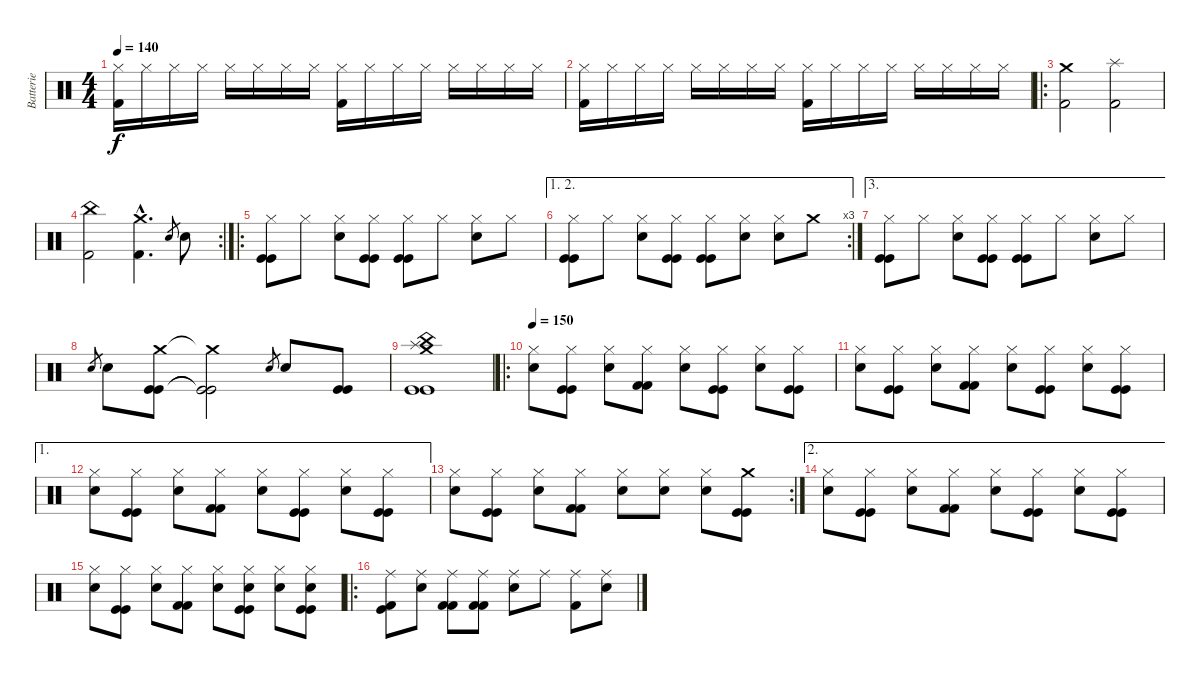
\track ("Batterie" "Batterie") {instrument percussion}
\staff {score}
\articulation defaults
\ts (4 4)
\tempo 140
\clef neutral
\ks c
("Hi-Hat (closed)" "Kick (hit) 2").16{dy f} "Hi-Hat (closed)".16 "Hi-Hat (closed)".16 "Hi-Hat (closed)".16 "Hi-Hat (closed)".16 "Hi-Hat (closed)".16 "Hi-Hat (closed)".16 "Hi-Hat (closed)".16 ("Hi-Hat (closed)" "Kick (hit) 2").16 "Hi-Hat (closed)".16 "Hi-Hat (closed)".16 "Hi-Hat (closed)".16 "Hi-Hat (closed)".16 "Hi-Hat (closed)".16 "Hi-Hat (closed)".16 "Hi-Hat (closed)".16 |
("Hi-Hat (closed)" "Kick (hit) 2").16 "Hi-Hat (closed)".16 "Hi-Hat (closed)".16 "Hi-Hat (closed)".16 "Hi-Hat (closed)".16 "Hi-Hat (closed)".16 "Hi-Hat (closed)".16 "Hi-Hat (closed)".16 ("Hi-Hat (closed)" "Kick (hit) 2").16 "Hi-Hat (closed)".16 "Hi-Hat (closed)".16 "Hi-Hat (closed)".16 "Hi-Hat (closed)".16 "Hi-Hat (closed)".16 "Hi-Hat (closed)".16 "Hi-Hat (closed)".16 |
\ro
("Crash medium (hit)" "Kick (hit) 2").2 ("Splash (hit)" "Kick (hit) 2").2 |
\rc 2
("China (hit)" "Kick (hit) 2").2 ("Crash medium (hit)"{hac} "Kick (hit) 2"{hac}).4{d} "Snare (hit) 2".8{gr} "Snare (hit) 2".8 |
\ro
("Hi-Hat (closed)" "Kick (hit)" "Kick (hit)").8 "Hi-Hat (closed)".8 ("Hi-Hat (closed)" "Snare (hit) 2").8 ("Hi-Hat (closed)" "Kick (hit)" "Kick (hit)").8 ("Hi-Hat (closed)" "Kick (hit)" "Kick (hit)").8 "Hi-Hat (closed)".8 ("Hi-Hat (closed)" "Snare (hit) 2").8 "Hi-Hat (closed)".8 |
\ae (1 2)
\rc 3
("Hi-Hat (closed)" "Kick (hit)" "Kick (hit)").8 "Hi-Hat (closed)".8 ("Hi-Hat (closed)" "Snare (hit) 2").8 ("Hi-Hat (closed)" "Kick (hit)" "Kick (hit)").8 ("Hi-Hat (closed)" "Kick (hit)" "Kick (hit)").8 ("Hi-Hat (closed)" "Snare (hit) 2").8 ("Hi-Hat (closed)" "Snare (hit) 2").8 "Crash medium (hit)".8 |
\ae 3
("Hi-Hat (closed)" "Kick (hit)" "Kick (hit)").8 "Hi-Hat (closed)".8 ("Hi-Hat (closed)" "Snare (hit) 2").8 ("Hi-Hat (closed)" "Kick (hit)" "Kick (hit)").8 ("Hi-Hat (closed)" "Kick (hit)" "Kick (hit)").8 "Hi-Hat (closed)".8 ("Hi-Hat (closed)" "Snare (hit) 2").8 "Hi-Hat (closed)".8 |
"Snare (hit) 2".8{gr} "Snare (hit) 2".8 ("Crash medium (hit)" "Kick (hit)" "Kick (hit)").8 ("Crash medium (hit)"{t} "Kick (hit)"{t} "Kick (hit)"{t}).2 "Snare (hit) 2".8{gr} "Snare (hit) 2".8 ("Kick (hit)" "Kick (hit)").8 |
("Crash medium (hit)" "Splash (hit)" "China (hit)" "Kick (hit)" "Kick (hit)").1 |
\ro
\tempo 150
("Hi-Hat (closed)" "Snare (hit) 2").8 ("Hi-Hat (closed)" "Kick (hit)" "Kick (hit)").8 ("Hi-Hat (closed)" "Snare (hit) 2").8 ("Hi-Hat (closed)" "Kick (hit) 2" "Kick (hit) 2").8 ("Hi-Hat (closed)" "Snare (hit) 2").8 ("Hi-Hat (closed)" "Kick (hit)" "Kick (hit)").8 ("Hi-Hat (closed)" "Snare (hit) 2").8 ("Hi-Hat (closed)" "Kick (hit)" "Kick (hit)").8 |
("Hi-Hat (closed)" "Snare (hit) 2").8 ("Hi-Hat (closed)" "Kick (hit)" "Kick (hit)").8 ("Hi-Hat (closed)" "Snare (hit) 2").8 ("Hi-Hat (closed)" "Kick (hit) 2" "Kick (hit) 2").8 ("Hi-Hat (closed)" "Snare (hit) 2").8 ("Hi-Hat (closed)" "Kick (hit)" "Kick (hit)").8 ("Hi-Hat (closed)" "Snare (hit) 2").8 ("Hi-Hat (closed)" "Kick (hit)" "Kick (hit)").8 |
\ae 1
("Hi-Hat (closed)" "Snare (hit) 2").8 ("Hi-Hat (closed)" "Kick (hit)" "Kick (hit)").8 ("Hi-Hat (closed)" "Snare (hit) 2").8 ("Hi-Hat (closed)" "Kick (hit) 2" "Kick (hit) 2").8 ("Hi-Hat (closed)" "Snare (hit) 2").8 ("Hi-Hat (closed)" "Kick (hit)" "Kick (hit)").8 ("Hi-Hat (closed)" "Snare (hit) 2").8 ("Hi-Hat (closed)" "Kick (hit)" "Kick (hit)").8 |
\rc 2
("Hi-Hat (closed)" "Snare (hit) 2").8 ("Hi-Hat (closed)" "Kick (hit)" "Kick (hit)").8 ("Hi-Hat (closed)" "Snare (hit) 2").8 ("Hi-Hat (closed)" "Kick (hit) 2" "Kick (hit) 2").8 ("Hi-Hat (closed)" "Snare (hit) 2").8 ("Hi-Hat (closed)" "Snare (hit) 2").8 ("Hi-Hat (closed)" "Snare (hit) 2").8 ("Crash medium (hit)" "Kick (hit)" "Kick (hit)").8 |
\ae 2
("Hi-Hat (closed)" "Snare (hit) 2").8 ("Hi-Hat (closed)" "Kick (hit)" "Kick (hit)").8 ("Hi-Hat (closed)" "Snare (hit) 2").8 ("Hi-Hat (closed)" "Kick (hit) 2" "Kick (hit) 2").8 ("Hi-Hat (closed)" "Snare (hit) 2").8 ("Hi-Hat (closed)" "Kick (hit)" "Kick (hit)").8 ("Hi-Hat (closed)" "Snare (hit) 2").8 ("Hi-Hat (closed)" "Kick (hit)" "Kick (hit)").8 |
("Hi-Hat (closed)" "Snare (hit) 2").8 ("Hi-Hat (closed)" "Kick (hit)" "Kick (hit)").8 ("Hi-Hat (closed)" "Snare (hit) 2").8 ("Hi-Hat (closed)" "Kick (hit) 2" "Kick (hit) 2").8 ("Hi-Hat (closed)" "Snare (hit) 2").8 ("Hi-Hat (closed)" "Snare (hit) 2" "Kick (hit)" "Kick (hit)").8 ("Hi-Hat (closed)" "Snare (hit) 2").8 ("Hi-Hat (closed)" "Snare (hit) 2" "Kick (hit)" "Kick (hit)").8 |
\ro
("Ride (middle)" "Kick (hit) 2" "Kick (hit)").8 ("Ride (middle)" "Snare (hit) 2").8 ("Ride (middle)" "Kick (hit) 2" "Kick (hit) 2").8 ("Ride (middle)" "Kick (hit) 2" "Kick (hit) 2").8 ("Ride (middle)" "Snare (hit) 2").8 "Ride (middle)".8 ("Ride (middle)" "Kick (hit) 2").8 ("Ride (middle)" "Snare (hit) 2").8
